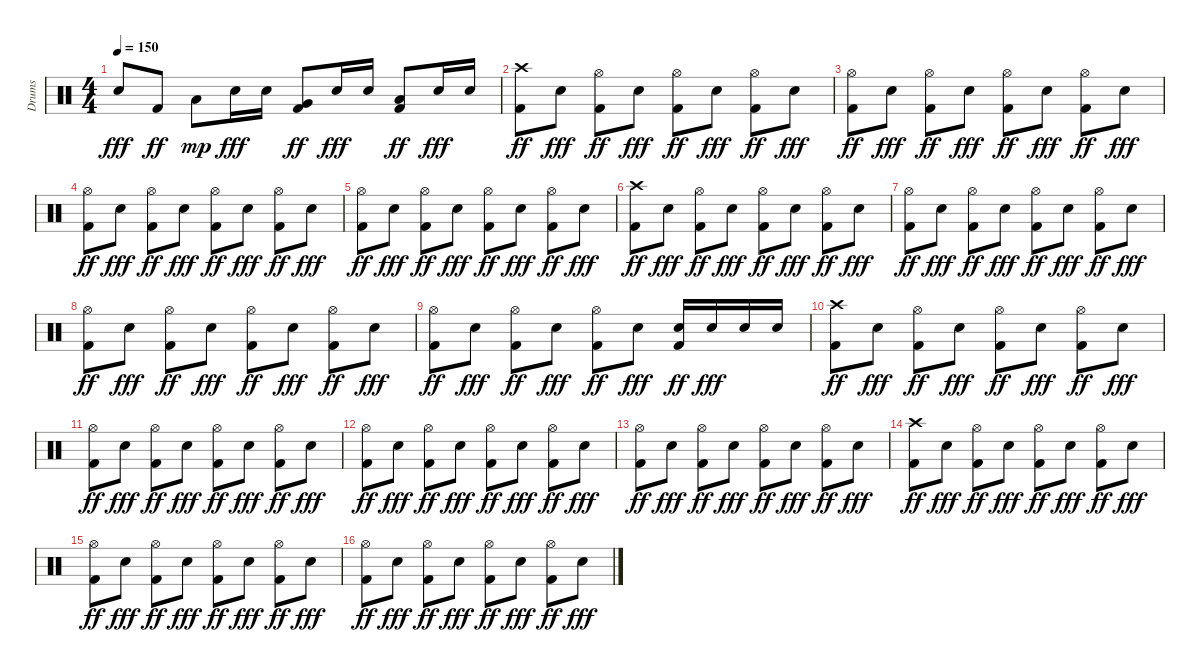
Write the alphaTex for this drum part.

\track ("Drums" "Drums") {instrument percussion}
\staff {score}
\articulation defaults
\ts (4 4)
\tempo 150
\clef neutral
\ks c "Snare (hit) 2".8{dy fff} "Kick (hit) 2".8{dy ff} "Low Tom (hit)".8{dy mp} "Snare (hit) 2".16{dy fff} "Snare (hit) 2".16
("Very Low Tom (hit)" "Kick (hit) 2").8{dy ff} "Snare (hit) 2".16{dy fff} "Snare (hit) 2".16 ("Low Floor Tom (hit)" "Kick (hit) 2").8{dy ff} "Snare (hit) 2".16{dy fff} "Snare (hit) 2".16 |
("Crash high (hit)" "Kick (hit) 2").8{dy ff} "Snare (hit) 2".8{dy fff} ("Hi-Hat (open)" "Kick (hit) 2").8{dy ff} "Snare (hit) 2".8{dy fff} ("Hi-Hat (open)" "Kick (hit) 2").8{dy ff} "Snare (hit) 2".8{dy fff} ("Hi-Hat (open)" "Kick (hit) 2").8{dy ff} "Snare (hit) 2".8{dy fff} |
("Hi-Hat (open)" "Kick (hit) 2").8{dy ff} "Snare (hit) 2".8{dy fff} ("Hi-Hat (open)" "Kick (hit) 2").8{dy ff} "Snare (hit) 2".8{dy fff} ("Hi-Hat (open)" "Kick (hit) 2").8{dy ff} "Snare (hit) 2".8{dy fff} ("Hi-Hat (open)" "Kick (hit) 2").8{dy ff} "Snare (hit) 2".8{dy fff} |
("Hi-Hat (open)" "Kick (hit) 2").8{dy ff} "Snare (hit) 2".8{dy fff} ("Hi-Hat (open)" "Kick (hit) 2").8{dy ff} "Snare (hit) 2".8{dy fff} ("Hi-Hat (open)" "Kick (hit) 2").8{dy ff} "Snare (hit) 2".8{dy fff} ("Hi-Hat (open)" "Kick (hit) 2").8{dy ff} "Snare (hit) 2".8{dy fff} |
("Hi-Hat (open)" "Kick (hit) 2").8{dy ff} "Snare (hit) 2".8{dy fff} ("Hi-Hat (open)" "Kick (hit) 2").8{dy ff} "Snare (hit) 2".8{dy fff} ("Hi-Hat (open)" "Kick (hit) 2").8{dy ff} "Snare (hit) 2".8{dy fff} ("Hi-Hat (open)" "Kick (hit) 2").8{dy ff} "Snare (hit) 2".8{dy fff} |
("Crash high (hit)" "Kick (hit) 2").8{dy ff} "Snare (hit) 2".8{dy fff} ("Hi-Hat (open)" "Kick (hit) 2").8{dy ff} "Snare (hit) 2".8{dy fff} ("Hi-Hat (open)" "Kick (hit) 2").8{dy ff} "Snare (hit) 2".8{dy fff} ("Hi-Hat (open)" "Kick (hit) 2").8{dy ff} "Snare (hit) 2".8{dy fff} |
("Hi-Hat (open)" "Kick (hit) 2").8{dy ff} "Snare (hit) 2".8{dy fff} ("Hi-Hat (open)" "Kick (hit) 2").8{dy ff} "Snare (hit) 2".8{dy fff} ("Hi-Hat (open)" "Kick (hit) 2").8{dy ff} "Snare (hit) 2".8{dy fff} ("Hi-Hat (open)" "Kick (hit) 2").8{dy ff} "Snare (hit) 2".8{dy fff} |
("Hi-Hat (open)" "Kick (hit) 2").8{dy ff} "Snare (hit) 2".8{dy fff} ("Hi-Hat (open)" "Kick (hit) 2").8{dy ff} "Snare (hit) 2".8{dy fff} ("Hi-Hat (open)" "Kick (hit) 2").8{dy ff} "Snare (hit) 2".8{dy fff} ("Hi-Hat (open)" "Kick (hit) 2").8{dy ff} "Snare (hit) 2".8{dy fff} |
("Hi-Hat (open)" "Kick (hit) 2").8{dy ff} "Snare (hit) 2".8{dy fff} ("Hi-Hat (open)" "Kick (hit) 2").8{dy ff} "Snare (hit) 2".8{dy fff} ("Hi-Hat (open)" "Kick (hit) 2").8{dy ff} "Snare (hit) 2".8{dy fff} ("Snare (hit) 2" "Kick (hit) 2").16{dy ff} "Snare (hit) 2".16{dy fff} "Snare (hit) 2".16 "Snare (hit) 2".16 |
("Crash high (hit)" "Kick (hit) 2").8{dy ff} "Snare (hit) 2".8{dy fff} ("Hi-Hat (open)" "Kick (hit) 2").8{dy ff} "Snare (hit) 2".8{dy fff} ("Hi-Hat (open)" "Kick (hit) 2").8{dy ff} "Snare (hit) 2".8{dy fff} ("Hi-Hat (open)" "Kick (hit) 2").8{dy ff} "Snare (hit) 2".8{dy fff} |
("Hi-Hat (open)" "Kick (hit) 2").8{dy ff} "Snare (hit) 2".8{dy fff} ("Hi-Hat (open)" "Kick (hit) 2").8{dy ff} "Snare (hit) 2".8{dy fff} ("Hi-Hat (open)" "Kick (hit) 2").8{dy ff} "Snare (hit) 2".8{dy fff} ("Hi-Hat (open)" "Kick (hit) 2").8{dy ff} "Snare (hit) 2".8{dy fff} |
("Hi-Hat (open)" "Kick (hit) 2").8{dy ff} "Snare (hit) 2".8{dy fff} ("Hi-Hat (open)" "Kick (hit) 2").8{dy ff} "Snare (hit) 2".8{dy fff} ("Hi-Hat (open)" "Kick (hit) 2").8{dy ff} "Snare (hit) 2".8{dy fff} ("Hi-Hat (open)" "Kick (hit) 2").8{dy ff} "Snare (hit) 2".8{dy fff} |
("Hi-Hat (open)" "Kick (hit) 2").8{dy ff} "Snare (hit) 2".8{dy fff} ("Hi-Hat (open)" "Kick (hit) 2").8{dy ff} "Snare (hit) 2".8{dy fff} ("Hi-Hat (open)" "Kick (hit) 2").8{dy ff} "Snare (hit) 2".8{dy fff} ("Hi-Hat (open)" "Kick (hit) 2").8{dy ff} "Snare (hit) 2".8{dy fff} |
("Crash high (hit)" "Kick (hit) 2").8{dy ff} "Snare (hit) 2".8{dy fff} ("Hi-Hat (open)" "Kick (hit) 2").8{dy ff} "Snare (hit) 2".8{dy fff} ("Hi-Hat (open)" "Kick (hit) 2").8{dy ff} "Snare (hit) 2".8{dy fff} ("Hi-Hat (open)" "Kick (hit) 2").8{dy ff} "Snare (hit) 2".8{dy fff} |
("Hi-Hat (open)" "Kick (hit) 2").8{dy ff} "Snare (hit) 2".8{dy fff} ("Hi-Hat (open)" "Kick (hit) 2").8{dy ff} "Snare (hit) 2".8{dy fff} ("Hi-Hat (open)" "Kick (hit) 2").8{dy ff} "Snare (hit) 2".8{dy fff} ("Hi-Hat (open)" "Kick (hit) 2").8{dy ff} "Snare (hit) 2".8{dy fff} |
("Hi-Hat (open)" "Kick (hit) 2").8{dy ff} "Snare (hit) 2".8{dy fff} ("Hi-Hat (open)" "Kick (hit) 2").8{dy ff} "Snare (hit) 2".8{dy fff} ("Hi-Hat (open)" "Kick (hit) 2").8{dy ff} "Snare (hit) 2".8{dy fff} ("Hi-Hat (open)" "Kick (hit) 2").8{dy ff} "Snare (hit) 2".8{dy fff}
